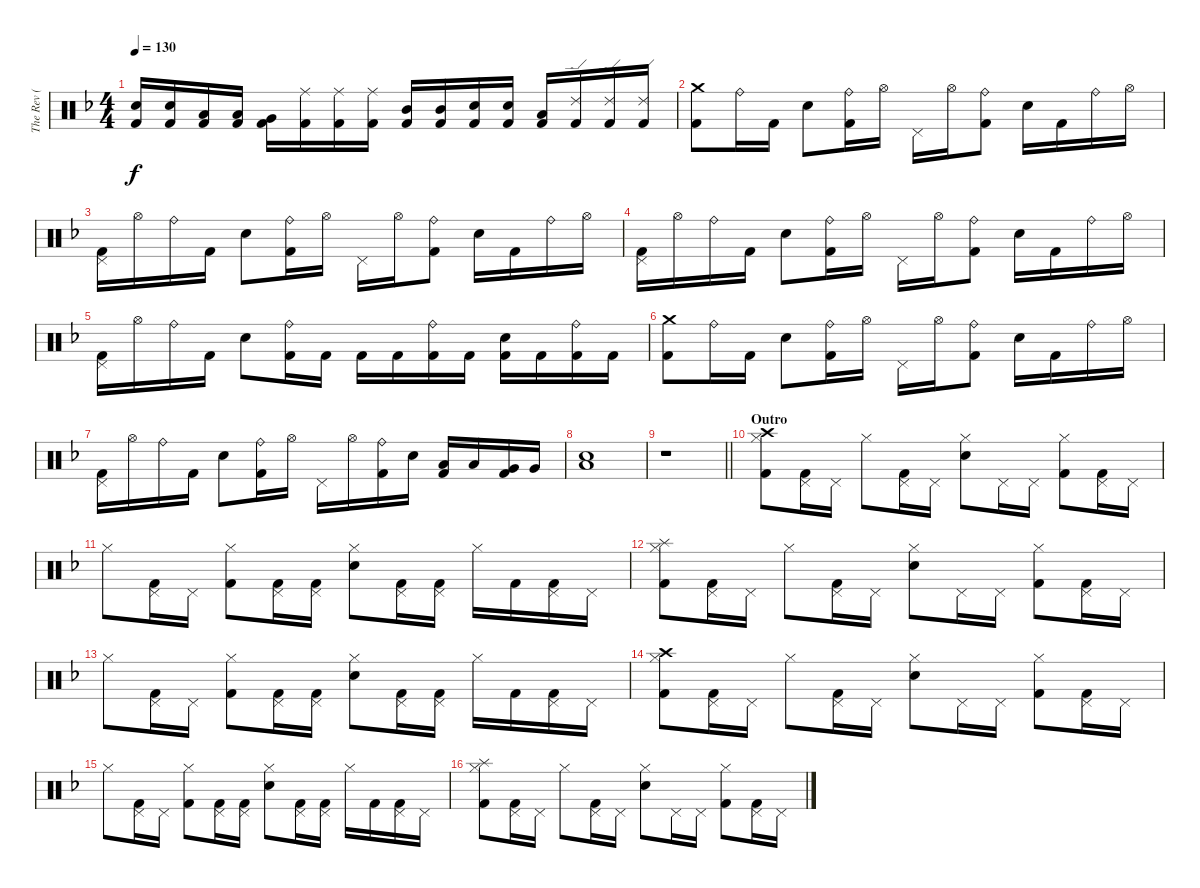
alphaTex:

\track ("The Rev ( Drums )" "The Rev ( ") {instrument percussion}
\staff {score}
\articulation defaults
\ts (4 4)
\tempo 130
\clef neutral
\ks f
("Snare (hit) 2" "Kick (hit) 2").16{dy f} ("Snare (hit) 2" "Kick (hit) 2").16 ("Low Tom (hit)" "Kick (hit) 2").16 ("Low Tom (hit)" "Kick (hit) 2").16 ("Very Low Tom (hit)" "Kick (hit) 2").16 ("Ride (middle)" "Kick (hit) 2").16 ("Ride (middle)" "Kick (hit) 2").16 ("Ride (middle)" "Kick (hit) 2").16 ("Mid Tom (hit)" "Kick (hit) 2").16 ("Mid Tom (hit)" "Kick (hit) 2").16 ("Snare (hit) 2" "Kick (hit) 2").16 ("Snare (hit) 2" "Kick (hit) 2").16 ("Low Tom (hit)" "Kick (hit) 2").16 ("Ride (edge) 2" "Kick (hit) 2").16 ("Ride (edge) 2" "Kick (hit) 2").16 ("Ride (edge) 2" "Kick (hit) 2").16 |
("Crash medium (hit)" "Kick (hit) 2").8 "Ride (bell)".16 "Kick (hit) 2".16 "Snare (hit) 2".8 ("Ride (bell)" "Kick (hit) 2").16 "Hi-Hat (open)".16 "Pedal Hi-Hat (hit)".16 "Hi-Hat (open)".16 ("Ride (bell)" "Kick (hit) 2").8 "Snare (hit) 2".16 "Kick (hit) 2".16 "Ride (bell)".16 "Hi-Hat (open)".16 |
("Pedal Hi-Hat (hit)" "Kick (hit) 2").16 "Hi-Hat (open)".16 "Ride (bell)".16 "Kick (hit) 2".16 "Snare (hit) 2".8 ("Ride (bell)" "Kick (hit) 2").16 "Hi-Hat (open)".16 "Pedal Hi-Hat (hit)".16 "Hi-Hat (open)".16 ("Ride (bell)" "Kick (hit) 2").8 "Snare (hit) 2".16 "Kick (hit) 2".16 "Ride (bell)".16 "Hi-Hat (open)".16 |
("Pedal Hi-Hat (hit)" "Kick (hit) 2").16 "Hi-Hat (open)".16 "Ride (bell)".16 "Kick (hit) 2".16 "Snare (hit) 2".8 ("Ride (bell)" "Kick (hit) 2").16 "Hi-Hat (open)".16 "Pedal Hi-Hat (hit)".16 "Hi-Hat (open)".16 ("Ride (bell)" "Kick (hit) 2").8 "Snare (hit) 2".16 "Kick (hit) 2".16 "Ride (bell)".16 "Hi-Hat (open)".16 |
("Pedal Hi-Hat (hit)" "Kick (hit) 2").16 "Hi-Hat (open)".16 "Ride (bell)".16 "Kick (hit) 2".16 "Snare (hit) 2".8 ("Ride (bell)" "Kick (hit) 2").16 "Kick (hit) 2".16 "Kick (hit) 2".16 "Kick (hit) 2".16 ("Ride (bell)" "Kick (hit) 2").16 "Kick (hit) 2".16 ("Snare (hit) 2" "Kick (hit) 2").16 "Kick (hit) 2".16 ("Ride (bell)" "Kick (hit) 2").16 "Kick (hit) 2".16 |
("Crash medium (hit)" "Kick (hit) 2").8 "Ride (bell)".16 "Kick (hit) 2".16 "Snare (hit) 2".8 ("Ride (bell)" "Kick (hit) 2").16 "Hi-Hat (open)".16 "Pedal Hi-Hat (hit)".16 "Hi-Hat (open)".16 ("Ride (bell)" "Kick (hit) 2").8 "Snare (hit) 2".16 "Kick (hit) 2".16 "Ride (bell)".16 "Hi-Hat (open)".16 |
("Pedal Hi-Hat (hit)" "Kick (hit) 2").16 "Hi-Hat (open)".16 "Ride (bell)".16 "Kick (hit) 2".16 "Snare (hit) 2".8 ("Ride (bell)" "Kick (hit) 2").16 "Hi-Hat (open)".16 "Pedal Hi-Hat (hit)".16 "Hi-Hat (open)".16 ("Ride (bell)" "Kick (hit) 2").16 "Snare (hit) 2".16 ("Low Tom (hit)" "Kick (hit) 2").16 "Low Tom (hit)".16 ("Very Low Tom (hit)" "Kick (hit) 2").16 "Very Low Tom (hit)".16 |
("Low Floor Tom (hit)" "Snare (hit) 2").1 |
\barLineRight lightlight
r.1 |
\section ("" "Outro")
("Crash high (hit)" "Hi-Hat (closed)" "Kick (hit) 2").8 ("Pedal Hi-Hat (hit)" "Kick (hit) 2").16 "Pedal Hi-Hat (hit)".16 "Hi-Hat (closed)".8 ("Pedal Hi-Hat (hit)" "Kick (hit) 2").16 "Pedal Hi-Hat (hit)".16 ("Hi-Hat (closed)" "Snare (hit) 2").8 "Pedal Hi-Hat (hit)".16 "Pedal Hi-Hat (hit)".16 ("Hi-Hat (closed)" "Kick (hit) 2").8 ("Pedal Hi-Hat (hit)" "Kick (hit) 2").16 "Pedal Hi-Hat (hit)".16 |
"Hi-Hat (closed)".8 ("Pedal Hi-Hat (hit)" "Kick (hit) 2").16 "Pedal Hi-Hat (hit)".16 ("Hi-Hat (closed)" "Kick (hit) 2").8 ("Pedal Hi-Hat (hit)" "Kick (hit) 2").16 ("Pedal Hi-Hat (hit)" "Kick (hit) 2").16 ("Hi-Hat (closed)" "Snare (hit) 2").8 ("Pedal Hi-Hat (hit)" "Kick (hit) 2").16 ("Pedal Hi-Hat (hit)" "Kick (hit) 2").16 "Hi-Hat (closed)".16 "Kick (hit) 2".16 ("Pedal Hi-Hat (hit)" "Kick (hit) 2").16 "Pedal Hi-Hat (hit)".16 |
("Splash (hit)" "Hi-Hat (closed)" "Kick (hit) 2").8 ("Pedal Hi-Hat (hit)" "Kick (hit) 2").16 "Pedal Hi-Hat (hit)".16 "Hi-Hat (closed)".8 ("Pedal Hi-Hat (hit)" "Kick (hit) 2").16 "Pedal Hi-Hat (hit)".16 ("Hi-Hat (closed)" "Snare (hit) 2").8 "Pedal Hi-Hat (hit)".16 "Pedal Hi-Hat (hit)".16 ("Hi-Hat (closed)" "Kick (hit) 2").8 ("Pedal Hi-Hat (hit)" "Kick (hit) 2").16 "Pedal Hi-Hat (hit)".16 |
"Hi-Hat (closed)".8 ("Pedal Hi-Hat (hit)" "Kick (hit) 2").16 "Pedal Hi-Hat (hit)".16 ("Hi-Hat (closed)" "Kick (hit) 2").8 ("Pedal Hi-Hat (hit)" "Kick (hit) 2").16 ("Pedal Hi-Hat (hit)" "Kick (hit) 2").16 ("Hi-Hat (closed)" "Snare (hit) 2").8 ("Pedal Hi-Hat (hit)" "Kick (hit) 2").16 ("Pedal Hi-Hat (hit)" "Kick (hit) 2").16 "Hi-Hat (closed)".16 "Kick (hit) 2".16 ("Pedal Hi-Hat (hit)" "Kick (hit) 2").16 "Pedal Hi-Hat (hit)".16 |
("Crash high (hit)" "Hi-Hat (closed)" "Kick (hit) 2").8 ("Pedal Hi-Hat (hit)" "Kick (hit) 2").16 "Pedal Hi-Hat (hit)".16 "Hi-Hat (closed)".8 ("Pedal Hi-Hat (hit)" "Kick (hit) 2").16 "Pedal Hi-Hat (hit)".16 ("Hi-Hat (closed)" "Snare (hit) 2").8 "Pedal Hi-Hat (hit)".16 "Pedal Hi-Hat (hit)".16 ("Hi-Hat (closed)" "Kick (hit) 2").8 ("Pedal Hi-Hat (hit)" "Kick (hit) 2").16 "Pedal Hi-Hat (hit)".16 |
"Hi-Hat (closed)".8 ("Pedal Hi-Hat (hit)" "Kick (hit) 2").16 "Pedal Hi-Hat (hit)".16 ("Hi-Hat (closed)" "Kick (hit) 2").8 ("Pedal Hi-Hat (hit)" "Kick (hit) 2").16 ("Pedal Hi-Hat (hit)" "Kick (hit) 2").16 ("Hi-Hat (closed)" "Snare (hit) 2").8 ("Pedal Hi-Hat (hit)" "Kick (hit) 2").16 ("Pedal Hi-Hat (hit)" "Kick (hit) 2").16 "Hi-Hat (closed)".16 "Kick (hit) 2".16 ("Pedal Hi-Hat (hit)" "Kick (hit) 2").16 "Pedal Hi-Hat (hit)".16 |
("Splash (hit)" "Hi-Hat (closed)" "Kick (hit) 2").8 ("Pedal Hi-Hat (hit)" "Kick (hit) 2").16 "Pedal Hi-Hat (hit)".16 "Hi-Hat (closed)".8 ("Pedal Hi-Hat (hit)" "Kick (hit) 2").16 "Pedal Hi-Hat (hit)".16 ("Hi-Hat (closed)" "Snare (hit) 2").8 "Pedal Hi-Hat (hit)".16 "Pedal Hi-Hat (hit)".16 ("Hi-Hat (closed)" "Kick (hit) 2").8 ("Pedal Hi-Hat (hit)" "Kick (hit) 2").16 "Pedal Hi-Hat (hit)".16
